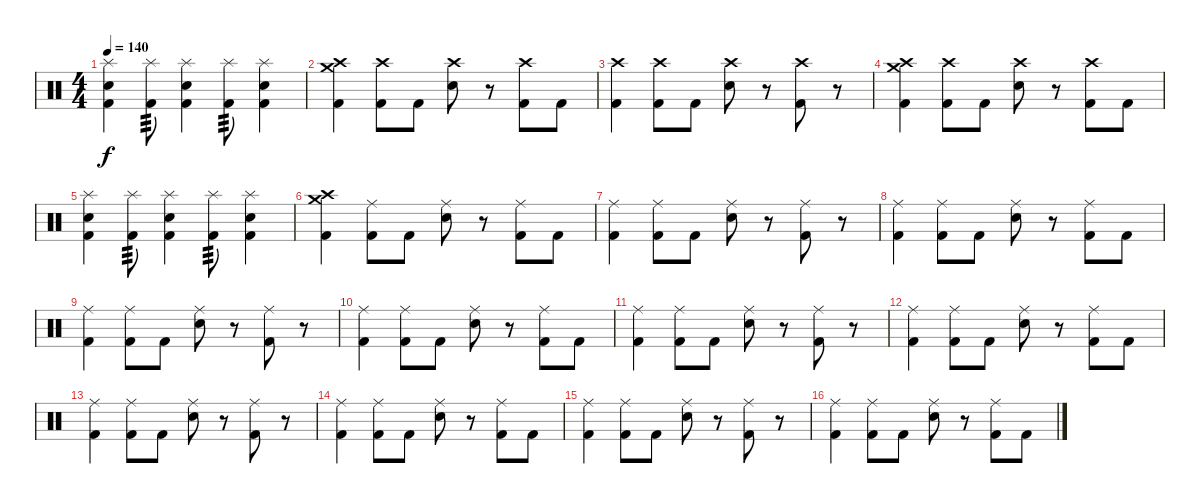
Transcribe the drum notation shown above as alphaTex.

\track "" {instrument percussion}
\staff {score}
\articulation defaults
\ts (4 4)
\tempo 140
\clef neutral
\ks c
("Kick (hit) 2" "Snare (hit) 2" "Splash (hit)").4{dy f} ("Kick (hit) 2" "Splash (hit)").8{tp 3} ("Kick (hit) 2" "Snare (hit) 2" "Splash (hit)").4 ("Kick (hit) 2" "Splash (hit)").8{tp 3} ("Kick (hit) 2" "Snare (hit) 2" "Splash (hit)").4 |
("Kick (hit) 2" "Crash medium (hit)" "Crash high (hit)").4 ("Kick (hit) 2" "Crash high (hit)").8 "Kick (hit) 2".8 ("Snare (hit) 2" "Crash high (hit)").8 r.8 ("Kick (hit) 2" "Crash high (hit)").8 "Kick (hit) 2".8 |
("Kick (hit) 2" "Crash high (hit)").4 ("Kick (hit) 2" "Crash high (hit)").8 "Kick (hit) 2".8 ("Snare (hit) 2" "Crash high (hit)").8 r.8 ("Kick (hit) 2" "Crash high (hit)").8 r.8 |
("Kick (hit) 2" "Crash medium (hit)" "Crash high (hit)").4 ("Kick (hit) 2" "Crash high (hit)").8 "Kick (hit) 2".8 ("Snare (hit) 2" "Crash high (hit)").8 r.8 ("Kick (hit) 2" "Crash high (hit)").8 "Kick (hit) 2".8 |
("Kick (hit) 2" "Snare (hit) 2" "Splash (hit)").4 ("Kick (hit) 2" "Splash (hit)").8{tp 3} ("Kick (hit) 2" "Snare (hit) 2" "Splash (hit)").4 ("Kick (hit) 2" "Splash (hit)").8{tp 3} ("Kick (hit) 2" "Snare (hit) 2" "Splash (hit)").4 |
("Kick (hit) 2" "Crash high (hit)" "Crash medium (hit)").4 ("Kick (hit) 2" "Ride (middle)").8 "Kick (hit) 2".8 ("Snare (hit) 2" "Ride (middle)").8 r.8 ("Kick (hit) 2" "Ride (middle)").8 "Kick (hit) 2".8 |
("Kick (hit) 2" "Ride (middle)").4 ("Kick (hit) 2" "Ride (middle)").8 "Kick (hit) 2".8 ("Snare (hit) 2" "Ride (middle)").8 r.8 ("Kick (hit) 2" "Ride (middle)").8 r.8 |
("Kick (hit) 2" "Ride (middle)").4 ("Kick (hit) 2" "Ride (middle)").8 "Kick (hit) 2".8 ("Snare (hit) 2" "Ride (middle)").8 r.8 ("Kick (hit) 2" "Ride (middle)").8 "Kick (hit) 2".8 |
("Kick (hit) 2" "Ride (middle)").4 ("Kick (hit) 2" "Ride (middle)").8 "Kick (hit) 2".8 ("Snare (hit) 2" "Ride (middle)").8 r.8 ("Kick (hit) 2" "Ride (middle)").8 r.8 |
("Kick (hit) 2" "Ride (middle)").4 ("Kick (hit) 2" "Ride (middle)").8 "Kick (hit) 2".8 ("Snare (hit) 2" "Ride (middle)").8 r.8 ("Kick (hit) 2" "Ride (middle)").8 "Kick (hit) 2".8 |
("Kick (hit) 2" "Ride (middle)").4 ("Kick (hit) 2" "Ride (middle)").8 "Kick (hit) 2".8 ("Snare (hit) 2" "Ride (middle)").8 r.8 ("Kick (hit) 2" "Ride (middle)").8 r.8 |
("Kick (hit) 2" "Ride (middle)").4 ("Kick (hit) 2" "Ride (middle)").8 "Kick (hit) 2".8 ("Snare (hit) 2" "Ride (middle)").8 r.8 ("Kick (hit) 2" "Ride (middle)").8 "Kick (hit) 2".8 |
("Kick (hit) 2" "Ride (middle)").4 ("Kick (hit) 2" "Ride (middle)").8 "Kick (hit) 2".8 ("Snare (hit) 2" "Ride (middle)").8 r.8 ("Kick (hit) 2" "Ride (middle)").8 r.8 |
("Kick (hit) 2" "Ride (middle)").4 ("Kick (hit) 2" "Ride (middle)").8 "Kick (hit) 2".8 ("Snare (hit) 2" "Ride (middle)").8 r.8 ("Kick (hit) 2" "Ride (middle)").8 "Kick (hit) 2".8 |
("Kick (hit) 2" "Ride (middle)").4 ("Kick (hit) 2" "Ride (middle)").8 "Kick (hit) 2".8 ("Snare (hit) 2" "Ride (middle)").8 r.8 ("Kick (hit) 2" "Ride (middle)").8 r.8 |
("Kick (hit) 2" "Ride (middle)").4 ("Kick (hit) 2" "Ride (middle)").8 "Kick (hit) 2".8 ("Snare (hit) 2" "Ride (middle)").8 r.8 ("Kick (hit) 2" "Ride (middle)").8 "Kick (hit) 2".8
